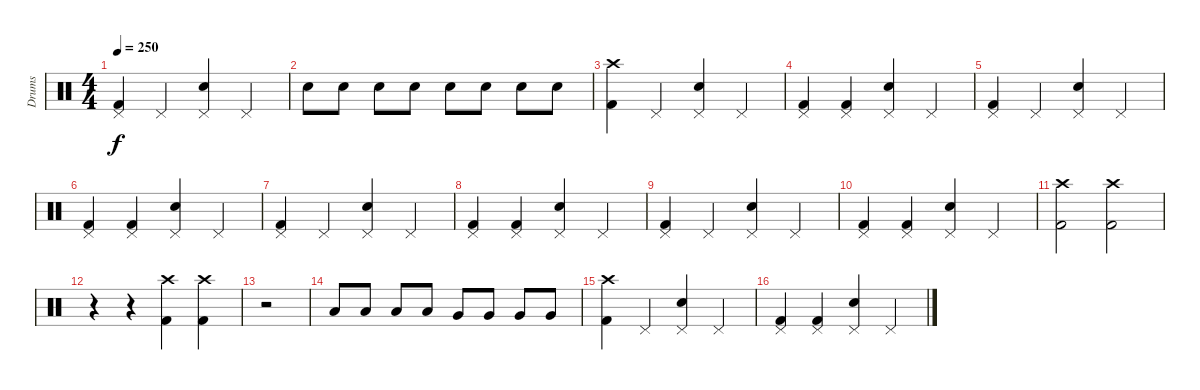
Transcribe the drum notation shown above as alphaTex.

\track ("Drums" "Drums") {instrument percussion}
\staff {score}
\articulation defaults
\ts (4 4)
\tempo 250
\clef neutral
\ks c
("Pedal Hi-Hat (hit)" "Kick (hit) 2").4{dy f} "Pedal Hi-Hat (hit)".4 ("Pedal Hi-Hat (hit)" "Electric Snare (hit)").4 "Pedal Hi-Hat (hit)".4 |
"Electric Snare (hit)".8 "Electric Snare (hit)".8 "Electric Snare (hit)".8 "Electric Snare (hit)".8 "Electric Snare (hit)".8 "Electric Snare (hit)".8 "Electric Snare (hit)".8 "Electric Snare (hit)".8 |
("Kick (hit) 2" "Crash high (hit)").4 "Pedal Hi-Hat (hit)".4 ("Pedal Hi-Hat (hit)" "Electric Snare (hit)").4 "Pedal Hi-Hat (hit)".4 |
("Pedal Hi-Hat (hit)" "Kick (hit) 2").4 ("Pedal Hi-Hat (hit)" "Kick (hit) 2").4 ("Pedal Hi-Hat (hit)" "Electric Snare (hit)").4 "Pedal Hi-Hat (hit)".4 |
("Pedal Hi-Hat (hit)" "Kick (hit) 2").4 "Pedal Hi-Hat (hit)".4 ("Pedal Hi-Hat (hit)" "Electric Snare (hit)").4 "Pedal Hi-Hat (hit)".4 |
("Pedal Hi-Hat (hit)" "Kick (hit) 2").4 ("Pedal Hi-Hat (hit)" "Kick (hit) 2").4 ("Pedal Hi-Hat (hit)" "Electric Snare (hit)").4 "Pedal Hi-Hat (hit)".4 |
("Pedal Hi-Hat (hit)" "Kick (hit) 2").4 "Pedal Hi-Hat (hit)".4 ("Pedal Hi-Hat (hit)" "Electric Snare (hit)").4 "Pedal Hi-Hat (hit)".4 |
("Pedal Hi-Hat (hit)" "Kick (hit) 2").4 ("Pedal Hi-Hat (hit)" "Kick (hit) 2").4 ("Pedal Hi-Hat (hit)" "Electric Snare (hit)").4 "Pedal Hi-Hat (hit)".4 |
("Pedal Hi-Hat (hit)" "Kick (hit) 2").4 "Pedal Hi-Hat (hit)".4 ("Pedal Hi-Hat (hit)" "Electric Snare (hit)").4 "Pedal Hi-Hat (hit)".4 |
("Pedal Hi-Hat (hit)" "Kick (hit) 2").4 ("Pedal Hi-Hat (hit)" "Kick (hit) 2").4 ("Pedal Hi-Hat (hit)" "Electric Snare (hit)").4 "Pedal Hi-Hat (hit)".4 |
("Kick (hit) 2" "Crash high (hit)").2 ("Kick (hit) 2" "Crash high (hit)").2 |
r.4 r.4 ("Kick (hit) 2" "Crash high (hit)").4 ("Kick (hit) 2" "Crash high (hit)").4 |
r.2 |
"Low Tom (hit)".8 "Low Tom (hit)".8 "Low Tom (hit)".8 "Low Tom (hit)".8 "Very Low Tom (hit)".8 "Very Low Tom (hit)".8 "Very Low Tom (hit)".8 "Very Low Tom (hit)".8 |
("Kick (hit) 2" "Crash high (hit)").4 "Pedal Hi-Hat (hit)".4 ("Pedal Hi-Hat (hit)" "Electric Snare (hit)").4 "Pedal Hi-Hat (hit)".4 |
("Pedal Hi-Hat (hit)" "Kick (hit) 2").4 ("Pedal Hi-Hat (hit)" "Kick (hit) 2").4 ("Pedal Hi-Hat (hit)" "Electric Snare (hit)").4 "Pedal Hi-Hat (hit)".4
